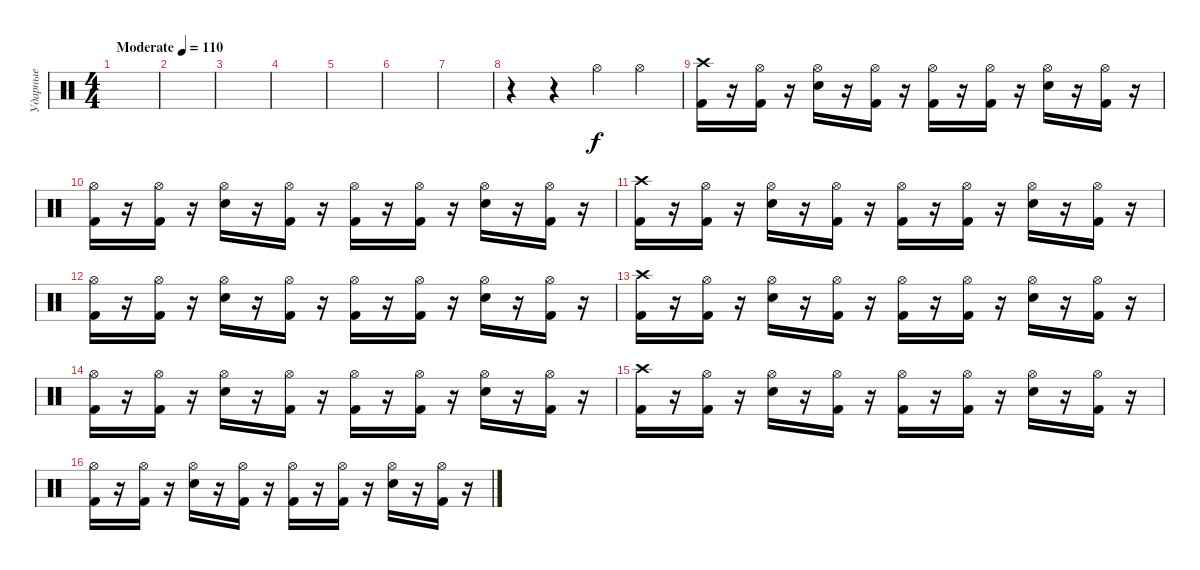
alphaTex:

\track ("Ударные" "Ударные") {instrument percussion}
\staff {score}
\articulation defaults
\ts (4 4)
\tempo (110 "Moderate")
\clef neutral
\ks c
|
|
|
|
|
|
|
r.4 r.4 "Hi-Hat (open)".4 "Hi-Hat (open)".4 |
("Crash high (hit)" "Kick (hit) 2").16 r.16 ("Hi-Hat (open)" "Kick (hit) 2").16 r.16 ("Hi-Hat (open)" "Electric Snare (hit)").16 r.16 ("Hi-Hat (open)" "Kick (hit) 2").16 r.16 ("Hi-Hat (open)" "Kick (hit) 2").16 r.16 ("Hi-Hat (open)" "Kick (hit) 2").16 r.16 ("Hi-Hat (open)" "Electric Snare (hit)").16 r.16 ("Hi-Hat (open)" "Kick (hit) 2").16 r.16 |
("Hi-Hat (open)" "Kick (hit) 2").16 r.16 ("Hi-Hat (open)" "Kick (hit) 2").16 r.16 ("Hi-Hat (open)" "Electric Snare (hit)").16 r.16 ("Hi-Hat (open)" "Kick (hit) 2").16 r.16 ("Hi-Hat (open)" "Kick (hit) 2").16 r.16 ("Hi-Hat (open)" "Kick (hit) 2").16 r.16 ("Hi-Hat (open)" "Electric Snare (hit)").16 r.16 ("Hi-Hat (open)" "Kick (hit) 2").16 r.16 |
("Crash high (hit)" "Kick (hit) 2").16 r.16 ("Hi-Hat (open)" "Kick (hit) 2").16 r.16 ("Hi-Hat (open)" "Electric Snare (hit)").16 r.16 ("Hi-Hat (open)" "Kick (hit) 2").16 r.16 ("Hi-Hat (open)" "Kick (hit) 2").16 r.16 ("Hi-Hat (open)" "Kick (hit) 2").16 r.16 ("Hi-Hat (open)" "Electric Snare (hit)").16 r.16 ("Hi-Hat (open)" "Kick (hit) 2").16 r.16 |
("Hi-Hat (open)" "Kick (hit) 2").16 r.16 ("Hi-Hat (open)" "Kick (hit) 2").16 r.16 ("Hi-Hat (open)" "Electric Snare (hit)").16 r.16 ("Hi-Hat (open)" "Kick (hit) 2").16 r.16 ("Hi-Hat (open)" "Kick (hit) 2").16 r.16 ("Hi-Hat (open)" "Kick (hit) 2").16 r.16 ("Hi-Hat (open)" "Electric Snare (hit)").16 r.16 ("Hi-Hat (open)" "Kick (hit) 2").16 r.16 |
("Crash high (hit)" "Kick (hit) 2").16 r.16 ("Hi-Hat (open)" "Kick (hit) 2").16 r.16 ("Hi-Hat (open)" "Electric Snare (hit)").16 r.16 ("Hi-Hat (open)" "Kick (hit) 2").16 r.16 ("Hi-Hat (open)" "Kick (hit) 2").16 r.16 ("Hi-Hat (open)" "Kick (hit) 2").16 r.16 ("Hi-Hat (open)" "Electric Snare (hit)").16 r.16 ("Hi-Hat (open)" "Kick (hit) 2").16 r.16 |
("Hi-Hat (open)" "Kick (hit) 2").16 r.16 ("Hi-Hat (open)" "Kick (hit) 2").16 r.16 ("Hi-Hat (open)" "Electric Snare (hit)").16 r.16 ("Hi-Hat (open)" "Kick (hit) 2").16 r.16 ("Hi-Hat (open)" "Kick (hit) 2").16 r.16 ("Hi-Hat (open)" "Kick (hit) 2").16 r.16 ("Hi-Hat (open)" "Electric Snare (hit)").16 r.16 ("Hi-Hat (open)" "Kick (hit) 2").16 r.16 |
("Crash high (hit)" "Kick (hit) 2").16 r.16 ("Hi-Hat (open)" "Kick (hit) 2").16 r.16 ("Hi-Hat (open)" "Electric Snare (hit)").16 r.16 ("Hi-Hat (open)" "Kick (hit) 2").16 r.16 ("Hi-Hat (open)" "Kick (hit) 2").16 r.16 ("Hi-Hat (open)" "Kick (hit) 2").16 r.16 ("Hi-Hat (open)" "Electric Snare (hit)").16 r.16 ("Hi-Hat (open)" "Kick (hit) 2").16 r.16 |
("Hi-Hat (open)" "Kick (hit) 2").16 r.16 ("Hi-Hat (open)" "Kick (hit) 2").16 r.16 ("Hi-Hat (open)" "Electric Snare (hit)").16 r.16 ("Hi-Hat (open)" "Kick (hit) 2").16 r.16 ("Hi-Hat (open)" "Kick (hit) 2").16 r.16 ("Hi-Hat (open)" "Kick (hit) 2").16 r.16 ("Hi-Hat (open)" "Electric Snare (hit)").16 r.16 ("Hi-Hat (open)" "Kick (hit) 2").16 r.16
